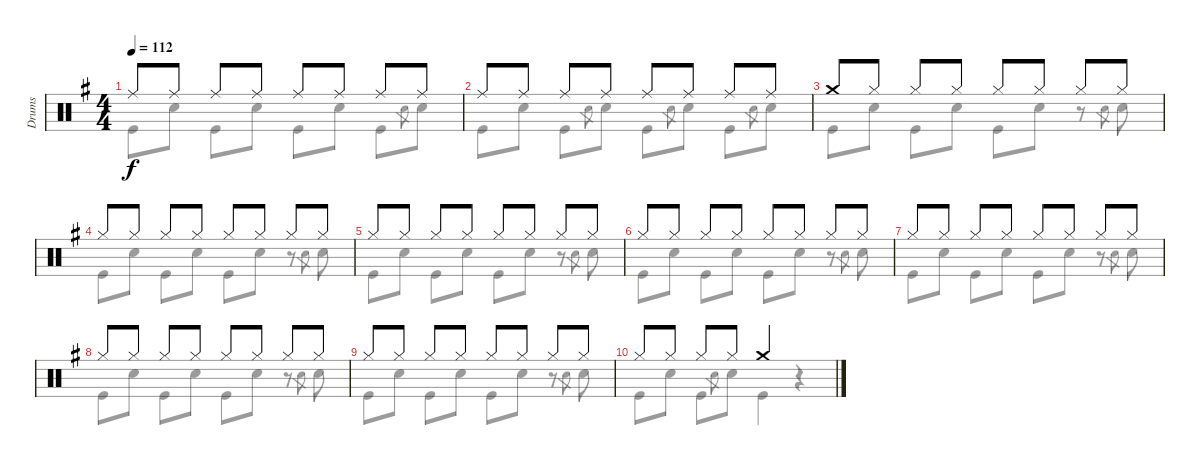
\track ("Drums" "Drums") {instrument percussion}
\staff {score}
\articulation defaults
\voice
\ts (4 4)
\tempo 112
\clef neutral
\ks g "Ride (middle)".8{dy f} "Ride (middle)".8 "Ride (middle)".8 "Ride (middle)".8 "Ride (middle)".8 "Ride (middle)".8 "Ride (middle)".8 "Ride (middle)".8
|
"Ride (middle)".8 "Ride (middle)".8 "Ride (middle)".8 "Ride (middle)".8 "Ride (middle)".8 "Ride (middle)".8 "Ride (middle)".8 "Ride (middle)".8 |
"Crash medium (hit)".8 "Hi-Hat (closed)".8 "Hi-Hat (closed)".8 "Hi-Hat (closed)".8 "Hi-Hat (closed)".8 "Hi-Hat (closed)".8 "Hi-Hat (closed)".8 "Hi-Hat (closed)".8 |
"Hi-Hat (closed)".8 "Hi-Hat (closed)".8 "Hi-Hat (closed)".8 "Hi-Hat (closed)".8 "Hi-Hat (closed)".8 "Hi-Hat (closed)".8 "Hi-Hat (closed)".8 "Hi-Hat (closed)".8 |
"Hi-Hat (closed)".8 "Hi-Hat (closed)".8 "Hi-Hat (closed)".8 "Hi-Hat (closed)".8 "Hi-Hat (closed)".8 "Hi-Hat (closed)".8 "Hi-Hat (closed)".8 "Hi-Hat (closed)".8 |
"Hi-Hat (closed)".8 "Hi-Hat (closed)".8 "Hi-Hat (closed)".8 "Hi-Hat (closed)".8 "Hi-Hat (closed)".8 "Hi-Hat (closed)".8 "Hi-Hat (closed)".8 "Hi-Hat (closed)".8 |
"Hi-Hat (closed)".8 "Hi-Hat (closed)".8 "Hi-Hat (closed)".8 "Hi-Hat (closed)".8 "Hi-Hat (closed)".8 "Hi-Hat (closed)".8 "Hi-Hat (closed)".8 "Hi-Hat (closed)".8 |
"Hi-Hat (closed)".8 "Hi-Hat (closed)".8 "Hi-Hat (closed)".8 "Hi-Hat (closed)".8 "Hi-Hat (closed)".8 "Hi-Hat (closed)".8 "Hi-Hat (closed)".8 "Hi-Hat (closed)".8 |
"Hi-Hat (closed)".8 "Hi-Hat (closed)".8 "Hi-Hat (closed)".8 "Hi-Hat (closed)".8 "Hi-Hat (closed)".8 "Hi-Hat (closed)".8 "Hi-Hat (closed)".8 "Hi-Hat (closed)".8 |
"Hi-Hat (closed)".8 "Hi-Hat (closed)".8 "Hi-Hat (closed)".8 "Hi-Hat (closed)".8 "Crash medium (hit)".2
\voice
\clef neutral
\ottava regular
\simile none
\ks g "Kick (hit)".8{dy f} "Snare (hit) 2".8 "Kick (hit)".8 "Snare (hit) 2".8 "Kick (hit)".8 "Snare (hit) 2".8 "Kick (hit)".8 "Snare (hit) 2".8{gr} "Snare (hit) 2".8
|
"Kick (hit)".8 "Snare (hit) 2".8 "Kick (hit)".8 "Snare (hit) 2".8{gr} "Snare (hit) 2".8 "Kick (hit)".8 "Snare (hit) 2".8{gr} "Snare (hit) 2".8 "Kick (hit)".8 "Snare (hit) 2".8{gr} "Snare (hit) 2".8 |
"Kick (hit)".8 "Snare (hit) 2".8 "Kick (hit)".8 "Snare (hit) 2".8 "Kick (hit)".8 "Snare (hit) 2".8 r.8 "Snare (hit) 2".8{gr} "Snare (hit) 2".8 |
"Kick (hit)".8 "Snare (hit) 2".8 "Kick (hit)".8 "Snare (hit) 2".8 "Kick (hit)".8 "Snare (hit) 2".8 r.8 "Snare (hit) 2".8{gr} "Snare (hit) 2".8 |
"Kick (hit)".8 "Snare (hit) 2".8 "Kick (hit)".8 "Snare (hit) 2".8 "Kick (hit)".8 "Snare (hit) 2".8 r.8 "Snare (hit) 2".8{gr} "Snare (hit) 2".8 |
"Kick (hit)".8 "Snare (hit) 2".8 "Kick (hit)".8 "Snare (hit) 2".8 "Kick (hit)".8 "Snare (hit) 2".8 r.8 "Snare (hit) 2".8{gr} "Snare (hit) 2".8 |
"Kick (hit)".8 "Snare (hit) 2".8 "Kick (hit)".8 "Snare (hit) 2".8 "Kick (hit)".8 "Snare (hit) 2".8 r.8 "Snare (hit) 2".8{gr} "Snare (hit) 2".8 |
"Kick (hit)".8 "Snare (hit) 2".8 "Kick (hit)".8 "Snare (hit) 2".8 "Kick (hit)".8 "Snare (hit) 2".8 r.8 "Snare (hit) 2".8{gr} "Snare (hit) 2".8 |
"Kick (hit)".8 "Snare (hit) 2".8 "Kick (hit)".8 "Snare (hit) 2".8 "Kick (hit)".8 "Snare (hit) 2".8 r.8 "Snare (hit) 2".8{gr} "Snare (hit) 2".8 |
"Kick (hit)".8 "Snare (hit) 2".8 "Kick (hit)".8 "Snare (hit) 2".8{gr} "Snare (hit) 2".8 "Kick (hit)".4 r.4
